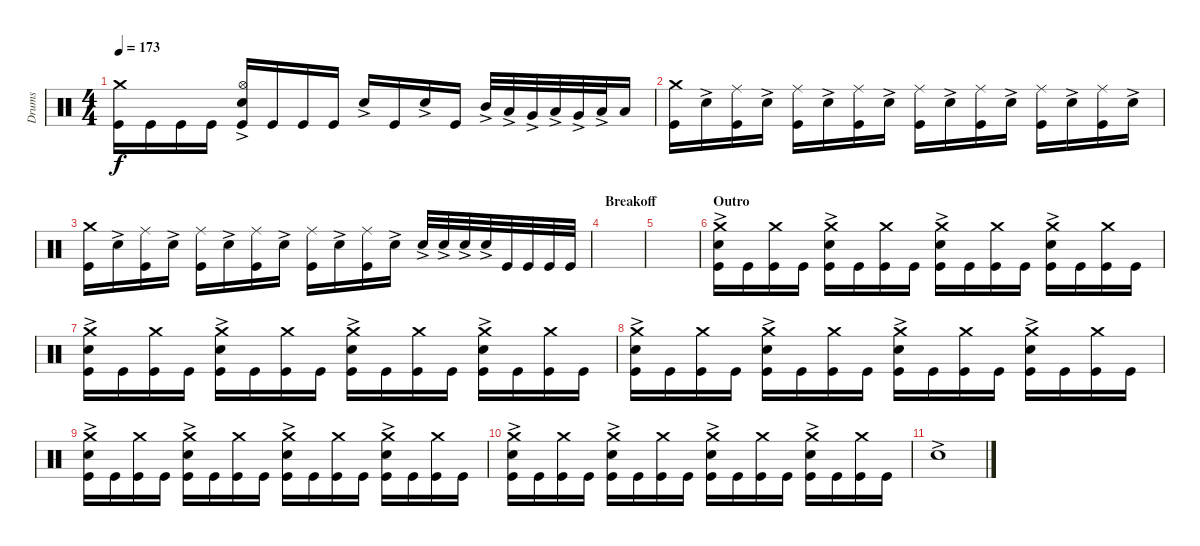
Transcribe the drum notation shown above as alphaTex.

\track ("Drums" "Drums") {instrument percussion}
\staff {score}
\articulation defaults
\ts (4 4)
\tempo 173
\clef neutral
\ks c
("Kick (hit)" "Crash medium (hit)").16{dy f} "Kick (hit)".16 "Kick (hit)".16 "Kick (hit)".16 ("Kick (hit)" "Hi-Hat (open)" "Snare (hit) 2"{ac}).16 "Kick (hit)".16 "Kick (hit)".16 "Kick (hit)".16 "Snare (hit) 2"{ac}.16 "Kick (hit)".16 "Snare (hit) 2"{ac}.16 "Kick (hit)".16 "Mid Tom (hit)"{ac}.32 "Low Tom (hit)"{ac}.32 "Very Low Tom (hit)"{ac}.32 "Low Tom (hit)"{ac}.32 "Very Low Tom (hit)"{ac}.32 "Low Floor Tom (hit)"{ac}.32 "Low Floor Tom (hit)".16 |
("Kick (hit)" "Crash medium (hit)").16 "Snare (hit) 2"{ac}.16 ("Kick (hit)" "Ride (middle)").16 "Snare (hit) 2"{ac}.16 ("Kick (hit)" "Ride (middle)").16 "Snare (hit) 2"{ac}.16 ("Kick (hit)" "Ride (middle)").16 "Snare (hit) 2"{ac}.16 ("Kick (hit)" "Ride (middle)").16 "Snare (hit) 2"{ac}.16 ("Kick (hit)" "Ride (middle)").16 "Snare (hit) 2"{ac}.16 ("Kick (hit)" "Ride (middle)").16 "Snare (hit) 2"{ac}.16 ("Kick (hit)" "Ride (middle)").16 "Snare (hit) 2"{ac}.16 |
("Kick (hit)" "Crash medium (hit)").16 "Snare (hit) 2"{ac}.16 ("Kick (hit)" "Ride (middle)").16 "Snare (hit) 2"{ac}.16 ("Kick (hit)" "Ride (middle)").16 "Snare (hit) 2"{ac}.16 ("Kick (hit)" "Ride (middle)").16 "Snare (hit) 2"{ac}.16 ("Kick (hit)" "Ride (middle)").16 "Snare (hit) 2"{ac}.16 ("Kick (hit)" "Ride (middle)").16 "Snare (hit) 2"{ac}.16 "Snare (hit) 2"{ac}.32 "Snare (hit) 2"{ac}.32 "Snare (hit) 2"{ac}.32 "Snare (hit) 2"{ac}.32 "Kick (hit)".32 "Kick (hit)".32 "Kick (hit)".32 "Kick (hit)".32 |
\section ("" "Breakoff")
|
|
\section ("" "Outro")
("Kick (hit)" "Snare (hit) 2"{ac} "Crash medium (hit)").16 "Kick (hit)".16 ("Kick (hit)" "Crash medium (hit)").16 "Kick (hit)".16 ("Kick (hit)" "Snare (hit) 2"{ac} "Crash medium (hit)").16 "Kick (hit)".16 ("Kick (hit)" "Crash medium (hit)").16 "Kick (hit)".16 ("Kick (hit)" "Snare (hit) 2"{ac} "Crash medium (hit)").16 "Kick (hit)".16 ("Kick (hit)" "Crash medium (hit)").16 "Kick (hit)".16 ("Kick (hit)" "Snare (hit) 2"{ac} "Crash medium (hit)").16 "Kick (hit)".16 ("Kick (hit)" "Crash medium (hit)").16 "Kick (hit)".16 |
("Kick (hit)" "Snare (hit) 2"{ac} "Crash medium (hit)").16 "Kick (hit)".16 ("Kick (hit)" "Crash medium (hit)").16 "Kick (hit)".16 ("Kick (hit)" "Snare (hit) 2"{ac} "Crash medium (hit)").16 "Kick (hit)".16 ("Kick (hit)" "Crash medium (hit)").16 "Kick (hit)".16 ("Kick (hit)" "Snare (hit) 2"{ac} "Crash medium (hit)").16 "Kick (hit)".16 ("Kick (hit)" "Crash medium (hit)").16 "Kick (hit)".16 ("Kick (hit)" "Snare (hit) 2"{ac} "Crash medium (hit)").16 "Kick (hit)".16 ("Kick (hit)" "Crash medium (hit)").16 "Kick (hit)".16 |
("Kick (hit)" "Snare (hit) 2"{ac} "Crash medium (hit)").16 "Kick (hit)".16 ("Kick (hit)" "Crash medium (hit)").16 "Kick (hit)".16 ("Kick (hit)" "Snare (hit) 2"{ac} "Crash medium (hit)").16 "Kick (hit)".16 ("Kick (hit)" "Crash medium (hit)").16 "Kick (hit)".16 ("Kick (hit)" "Snare (hit) 2"{ac} "Crash medium (hit)").16 "Kick (hit)".16 ("Kick (hit)" "Crash medium (hit)").16 "Kick (hit)".16 ("Kick (hit)" "Snare (hit) 2"{ac} "Crash medium (hit)").16 "Kick (hit)".16 ("Kick (hit)" "Crash medium (hit)").16 "Kick (hit)".16 |
("Kick (hit)" "Snare (hit) 2"{ac} "Crash medium (hit)").16 "Kick (hit)".16 ("Kick (hit)" "Crash medium (hit)").16 "Kick (hit)".16 ("Kick (hit)" "Snare (hit) 2"{ac} "Crash medium (hit)").16 "Kick (hit)".16 ("Kick (hit)" "Crash medium (hit)").16 "Kick (hit)".16 ("Kick (hit)" "Snare (hit) 2"{ac} "Crash medium (hit)").16 "Kick (hit)".16 ("Kick (hit)" "Crash medium (hit)").16 "Kick (hit)".16 ("Kick (hit)" "Snare (hit) 2"{ac} "Crash medium (hit)").16 "Kick (hit)".16 ("Kick (hit)" "Crash medium (hit)").16 "Kick (hit)".16 |
("Kick (hit)" "Snare (hit) 2"{ac} "Crash medium (hit)").16 "Kick (hit)".16 ("Kick (hit)" "Crash medium (hit)").16 "Kick (hit)".16 ("Kick (hit)" "Snare (hit) 2"{ac} "Crash medium (hit)").16 "Kick (hit)".16 ("Kick (hit)" "Crash medium (hit)").16 "Kick (hit)".16 ("Kick (hit)" "Snare (hit) 2"{ac} "Crash medium (hit)").16 "Kick (hit)".16 ("Kick (hit)" "Crash medium (hit)").16 "Kick (hit)".16 ("Kick (hit)" "Snare (hit) 2"{ac} "Crash medium (hit)").16 "Kick (hit)".16 ("Kick (hit)" "Crash medium (hit)").16 "Kick (hit)".16 |
"Snare (hit) 2"{ac}.1
